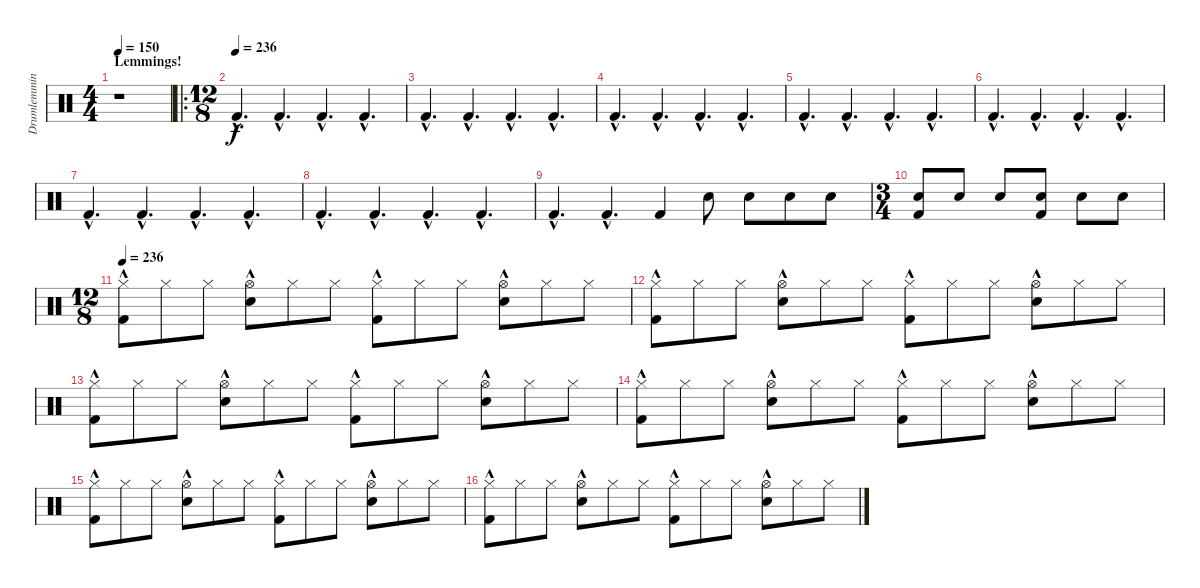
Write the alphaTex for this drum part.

\track ("Drumlemming" "Drumlemmin") {instrument percussion}
\staff {score}
\articulation defaults
\ts (4 4)
\section ("" "Lemmings!")
\tempo 150
\clef neutral
\ks c
r.1{dy f} |
\ro
\ts (12 8)
\tempo (236)
"Kick (hit) 2"{hac}.4{d} "Kick (hit) 2"{hac}.4{d} "Kick (hit) 2"{hac}.4{d} "Kick (hit) 2"{hac}.4{d} |
"Kick (hit) 2"{hac}.4{d} "Kick (hit) 2"{hac}.4{d} "Kick (hit) 2"{hac}.4{d} "Kick (hit) 2"{hac}.4{d} |
"Kick (hit) 2"{hac}.4{d} "Kick (hit) 2"{hac}.4{d} "Kick (hit) 2"{hac}.4{d} "Kick (hit) 2"{hac}.4{d} |
"Kick (hit) 2"{hac}.4{d} "Kick (hit) 2"{hac}.4{d} "Kick (hit) 2"{hac}.4{d} "Kick (hit) 2"{hac}.4{d} |
"Kick (hit) 2"{hac}.4{d} "Kick (hit) 2"{hac}.4{d} "Kick (hit) 2"{hac}.4{d} "Kick (hit) 2"{hac}.4{d} |
"Kick (hit) 2"{hac}.4{d} "Kick (hit) 2"{hac}.4{d} "Kick (hit) 2"{hac}.4{d} "Kick (hit) 2"{hac}.4{d} |
"Kick (hit) 2"{hac}.4{d} "Kick (hit) 2"{hac}.4{d} "Kick (hit) 2"{hac}.4{d} "Kick (hit) 2"{hac}.4{d} |
"Kick (hit) 2"{hac}.4{d} "Kick (hit) 2"{hac}.4{d} "Kick (hit) 2".4 "Snare (hit) 2".8 "Snare (hit) 2".8 "Snare (hit) 2".8 "Snare (hit) 2".8 |
\ts (3 4)
("Snare (hit) 2" "Kick (hit) 2").8 "Snare (hit) 2".8 "Snare (hit) 2".8 ("Snare (hit) 2" "Kick (hit) 2").8 "Snare (hit) 2".8 "Snare (hit) 2".8 |
\ts (12 8)
\tempo 236
("Hi-Hat (closed)"{hac} "Kick (hit) 2").8 "Hi-Hat (closed)".8 "Hi-Hat (closed)".8 ("Hi-Hat (open)"{hac} "Snare (hit) 2").8 "Hi-Hat (closed)".8 "Hi-Hat (closed)".8 ("Hi-Hat (closed)"{hac} "Kick (hit) 2").8 "Hi-Hat (closed)".8 "Hi-Hat (closed)".8 ("Hi-Hat (open)"{hac} "Snare (hit) 2").8 "Hi-Hat (closed)".8 "Hi-Hat (closed)".8 |
("Hi-Hat (closed)"{hac} "Kick (hit) 2").8 "Hi-Hat (closed)".8 "Hi-Hat (closed)".8 ("Hi-Hat (open)"{hac} "Snare (hit) 2").8 "Hi-Hat (closed)".8 "Hi-Hat (closed)".8 ("Hi-Hat (closed)"{hac} "Kick (hit) 2").8 "Hi-Hat (closed)".8 "Hi-Hat (closed)".8 ("Hi-Hat (open)"{hac} "Snare (hit) 2").8 "Hi-Hat (closed)".8 "Hi-Hat (closed)".8 |
("Hi-Hat (closed)"{hac} "Kick (hit) 2").8 "Hi-Hat (closed)".8 "Hi-Hat (closed)".8 ("Hi-Hat (open)"{hac} "Snare (hit) 2").8 "Hi-Hat (closed)".8 "Hi-Hat (closed)".8 ("Hi-Hat (closed)"{hac} "Kick (hit) 2").8 "Hi-Hat (closed)".8 "Hi-Hat (closed)".8 ("Hi-Hat (open)"{hac} "Snare (hit) 2").8 "Hi-Hat (closed)".8 "Hi-Hat (closed)".8 |
("Hi-Hat (closed)"{hac} "Kick (hit) 2").8 "Hi-Hat (closed)".8 "Hi-Hat (closed)".8 ("Hi-Hat (open)"{hac} "Snare (hit) 2").8 "Hi-Hat (closed)".8 "Hi-Hat (closed)".8 ("Hi-Hat (closed)"{hac} "Kick (hit) 2").8 "Hi-Hat (closed)".8 "Hi-Hat (closed)".8 ("Hi-Hat (open)"{hac} "Snare (hit) 2").8 "Hi-Hat (closed)".8 "Hi-Hat (closed)".8 |
("Hi-Hat (closed)"{hac} "Kick (hit) 2").8 "Hi-Hat (closed)".8 "Hi-Hat (closed)".8 ("Hi-Hat (open)"{hac} "Snare (hit) 2").8 "Hi-Hat (closed)".8 "Hi-Hat (closed)".8 ("Hi-Hat (closed)"{hac} "Kick (hit) 2").8 "Hi-Hat (closed)".8 "Hi-Hat (closed)".8 ("Hi-Hat (open)"{hac} "Snare (hit) 2").8 "Hi-Hat (closed)".8 "Hi-Hat (closed)".8 |
("Hi-Hat (closed)"{hac} "Kick (hit) 2").8 "Hi-Hat (closed)".8 "Hi-Hat (closed)".8 ("Hi-Hat (open)"{hac} "Snare (hit) 2").8 "Hi-Hat (closed)".8 "Hi-Hat (closed)".8 ("Hi-Hat (closed)"{hac} "Kick (hit) 2").8 "Hi-Hat (closed)".8 "Hi-Hat (closed)".8 ("Hi-Hat (open)"{hac} "Snare (hit) 2").8 "Hi-Hat (closed)".8 "Hi-Hat (closed)".8
